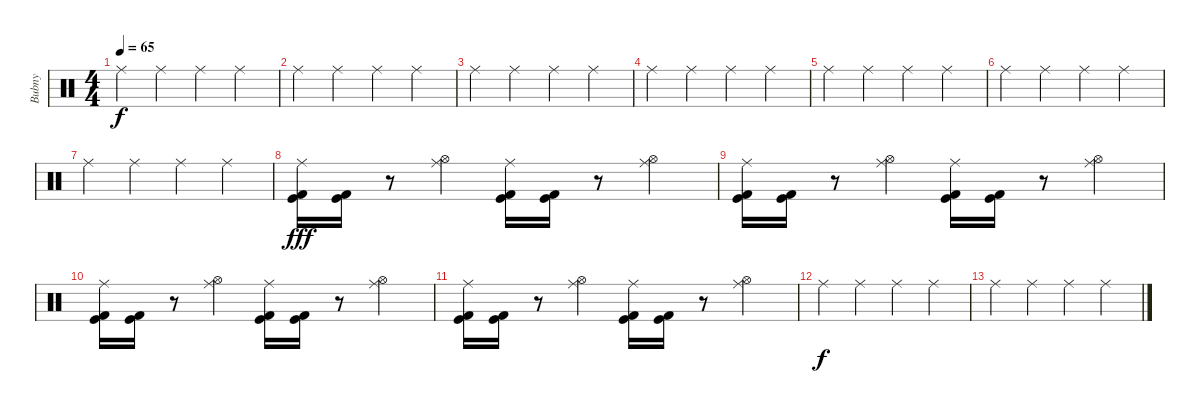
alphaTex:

\track ("Bubny" "Bubny") {instrument percussion}
\staff {score}
\articulation defaults
\ts (4 4)
\tempo 65
\clef neutral
\ks c "Ride (middle)".4{dy f} "Ride (middle)".4 "Ride (middle)".4 "Ride (middle)".4
|
"Ride (middle)".4 "Ride (middle)".4 "Ride (middle)".4 "Ride (middle)".4 |
"Ride (middle)".4 "Ride (middle)".4 "Ride (middle)".4 "Ride (middle)".4 |
"Ride (middle)".4 "Ride (middle)".4 "Ride (middle)".4 "Ride (middle)".4 |
"Ride (middle)".4 "Ride (middle)".4 "Ride (middle)".4 "Ride (middle)".4 |
"Ride (middle)".4 "Ride (middle)".4 "Ride (middle)".4 "Ride (middle)".4 |
"Ride (middle)".4 "Ride (middle)".4 "Ride (middle)".4 "Ride (middle)".4 |
("Ride (middle)" "Kick (hit) 2" "Kick (hit)").16{dy fff} ("Kick (hit) 2" "Kick (hit)").16 r.8 ("Ride (middle)" "Hi-Hat (open)").4 ("Ride (middle)" "Kick (hit) 2" "Kick (hit)").16 ("Kick (hit) 2" "Kick (hit)").16 r.8 ("Ride (middle)" "Hi-Hat (open)").4 |
("Ride (middle)" "Kick (hit) 2" "Kick (hit)").16 ("Kick (hit) 2" "Kick (hit)").16 r.8 ("Ride (middle)" "Hi-Hat (open)").4 ("Ride (middle)" "Kick (hit) 2" "Kick (hit)").16 ("Kick (hit) 2" "Kick (hit)").16 r.8 ("Ride (middle)" "Hi-Hat (open)").4 |
("Ride (middle)" "Kick (hit) 2" "Kick (hit)").16 ("Kick (hit) 2" "Kick (hit)").16 r.8 ("Ride (middle)" "Hi-Hat (open)").4 ("Ride (middle)" "Kick (hit) 2" "Kick (hit)").16 ("Kick (hit) 2" "Kick (hit)").16 r.8 ("Ride (middle)" "Hi-Hat (open)").4 |
("Ride (middle)" "Kick (hit) 2" "Kick (hit)").16 ("Kick (hit) 2" "Kick (hit)").16 r.8 ("Ride (middle)" "Hi-Hat (open)").4 ("Ride (middle)" "Kick (hit) 2" "Kick (hit)").16 ("Kick (hit) 2" "Kick (hit)").16 r.8 ("Ride (middle)" "Hi-Hat (open)").4 |
"Ride (middle)".4{dy f volume 0} "Ride (middle)".4 "Ride (middle)".4 "Ride (middle)".4 |
"Ride (middle)".4 "Ride (middle)".4 "Ride (middle)".4 "Ride (middle)".4
